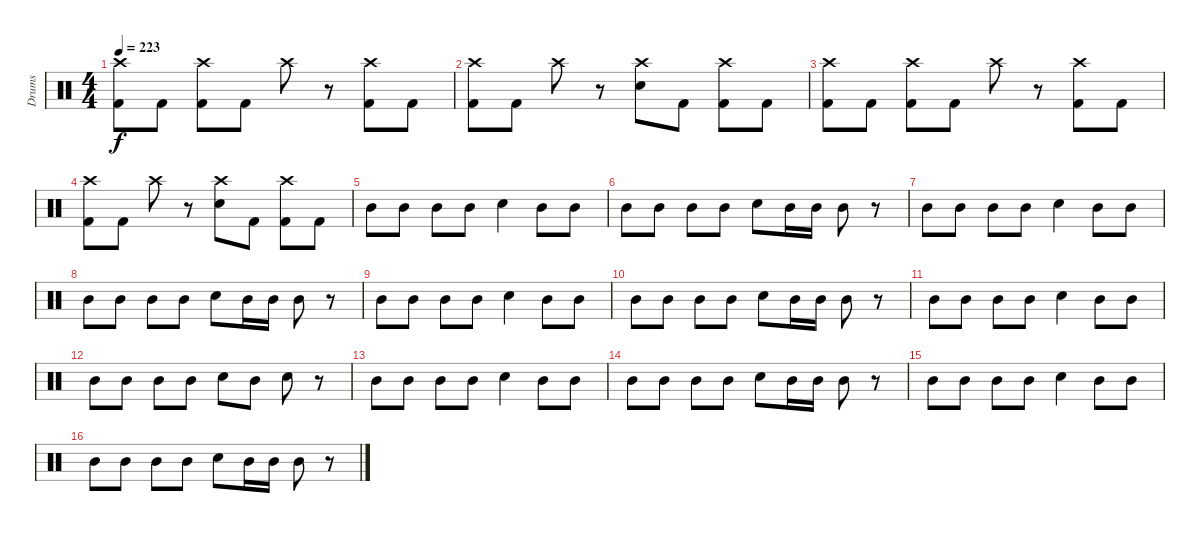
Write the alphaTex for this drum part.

\track ("Drums" "Drums") {instrument percussion bank 177}
\staff {score}
\articulation defaults
\ts (4 4)
\tempo 223
\clef neutral
\ks c
("Crash high (hit)" "Kick (hit) 2").8{dy f} "Kick (hit) 2".8 ("Crash high (hit)" "Kick (hit) 2").8 "Kick (hit) 2".8 "Crash high (hit)".8 r.8 ("Crash high (hit)" "Kick (hit) 2").8 "Kick (hit) 2".8 |
("Crash high (hit)" "Kick (hit) 2").8 "Kick (hit) 2".8 "Crash high (hit)".8 r.8 ("Crash high (hit)" "Electric Snare (hit)").8 "Kick (hit) 2".8 ("Crash high (hit)" "Kick (hit) 2").8 "Kick (hit) 2".8 |
("Crash high (hit)" "Kick (hit) 2").8 "Kick (hit) 2".8 ("Crash high (hit)" "Kick (hit) 2").8 "Kick (hit) 2".8 "Crash high (hit)".8 r.8 ("Crash high (hit)" "Kick (hit) 2").8 "Kick (hit) 2".8 |
("Crash high (hit)" "Kick (hit) 2").8 "Kick (hit) 2".8 "Crash high (hit)".8 r.8 ("Crash high (hit)" "Electric Snare (hit)").8 "Kick (hit) 2".8 ("Crash high (hit)" "Kick (hit) 2").8 "Kick (hit) 2".8 |
"Mid Tom (hit)".8 "Mid Tom (hit)".8 "Mid Tom (hit)".8 "Mid Tom (hit)".8 "Electric Snare (hit)".4 "Mid Tom (hit)".8 "Mid Tom (hit)".8 |
"Mid Tom (hit)".8 "Mid Tom (hit)".8 "Mid Tom (hit)".8 "Mid Tom (hit)".8 "Electric Snare (hit)".8 "Mid Tom (hit)".16 "Mid Tom (hit)".16 "Mid Tom (hit)".8 r.8 |
"Mid Tom (hit)".8 "Mid Tom (hit)".8 "Mid Tom (hit)".8 "Mid Tom (hit)".8 "Electric Snare (hit)".4 "Mid Tom (hit)".8 "Mid Tom (hit)".8 |
"Mid Tom (hit)".8 "Mid Tom (hit)".8 "Mid Tom (hit)".8 "Mid Tom (hit)".8 "Electric Snare (hit)".8 "Mid Tom (hit)".16 "Mid Tom (hit)".16 "Mid Tom (hit)".8 r.8 |
"Mid Tom (hit)".8 "Mid Tom (hit)".8 "Mid Tom (hit)".8 "Mid Tom (hit)".8 "Electric Snare (hit)".4 "Mid Tom (hit)".8 "Mid Tom (hit)".8 |
"Mid Tom (hit)".8 "Mid Tom (hit)".8 "Mid Tom (hit)".8 "Mid Tom (hit)".8 "Electric Snare (hit)".8 "Mid Tom (hit)".16 "Mid Tom (hit)".16 "Mid Tom (hit)".8 r.8 |
"Mid Tom (hit)".8 "Mid Tom (hit)".8 "Mid Tom (hit)".8 "Mid Tom (hit)".8 "Electric Snare (hit)".4 "Mid Tom (hit)".8 "Mid Tom (hit)".8 |
"Mid Tom (hit)".8 "Mid Tom (hit)".8 "Mid Tom (hit)".8 "Mid Tom (hit)".8 "Electric Snare (hit)".8 "Mid Tom (hit)".8 "Electric Snare (hit)".8 r.8 |
"Mid Tom (hit)".8 "Mid Tom (hit)".8 "Mid Tom (hit)".8 "Mid Tom (hit)".8 "Electric Snare (hit)".4 "Mid Tom (hit)".8 "Mid Tom (hit)".8 |
"Mid Tom (hit)".8 "Mid Tom (hit)".8 "Mid Tom (hit)".8 "Mid Tom (hit)".8 "Electric Snare (hit)".8 "Mid Tom (hit)".16 "Mid Tom (hit)".16 "Mid Tom (hit)".8 r.8 |
"Mid Tom (hit)".8 "Mid Tom (hit)".8 "Mid Tom (hit)".8 "Mid Tom (hit)".8 "Electric Snare (hit)".4 "Mid Tom (hit)".8 "Mid Tom (hit)".8 |
"Mid Tom (hit)".8 "Mid Tom (hit)".8 "Mid Tom (hit)".8 "Mid Tom (hit)".8 "Electric Snare (hit)".8 "Mid Tom (hit)".16 "Mid Tom (hit)".16 "Mid Tom (hit)".8 r.8
